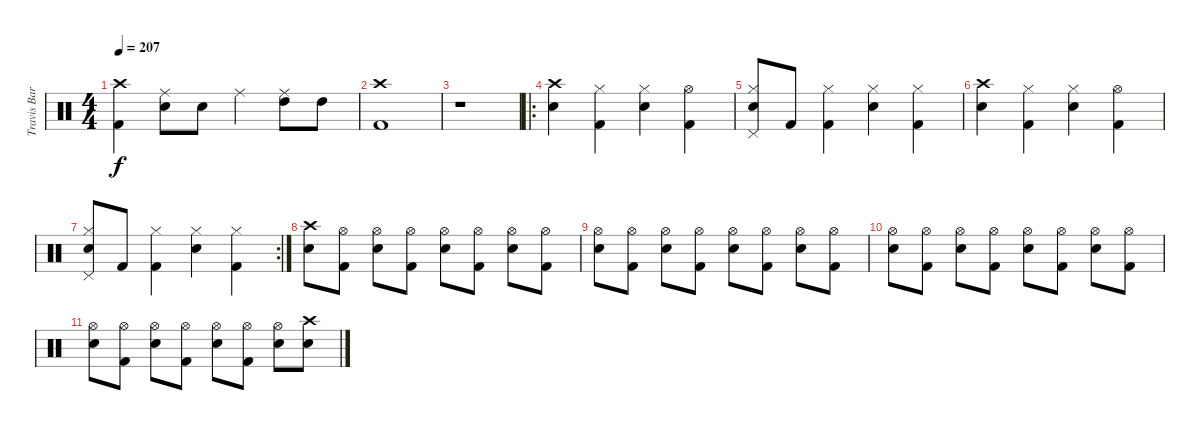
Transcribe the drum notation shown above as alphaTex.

\track ("Travis Barker" "Travis Bar") {instrument percussion}
\staff {score}
\articulation defaults
\ts (4 4)
\tempo 207
\clef neutral
\ks c
("Crash high (hit)" "Kick (hit) 2").4{dy f} ("Ride (middle)" "Electric Snare (hit)").8 "Electric Snare (hit)".8 "Ride (middle)".4 ("Ride (middle)" "High Tom (hit)").8 "High Tom (hit)".8 |
("Crash high (hit)" "Kick (hit) 2").1 |
r.1 |
\ro
("Crash high (hit)" "Electric Snare (hit)").4 ("Hi-Hat (closed)" "Kick (hit) 2").4 ("Hi-Hat (closed)" "Electric Snare (hit)").4 ("Hi-Hat (open)" "Kick (hit) 2").4 |
("Hi-Hat (closed)" "Electric Snare (hit)" "Pedal Hi-Hat (hit)").8 "Kick (hit) 2".8 ("Hi-Hat (closed)" "Kick (hit) 2").4 ("Hi-Hat (closed)" "Electric Snare (hit)").4 ("Hi-Hat (closed)" "Kick (hit) 2").4 |
("Crash high (hit)" "Electric Snare (hit)").4 ("Hi-Hat (closed)" "Kick (hit) 2").4 ("Hi-Hat (closed)" "Electric Snare (hit)").4 ("Hi-Hat (open)" "Kick (hit) 2").4 |
\rc 2
("Hi-Hat (closed)" "Electric Snare (hit)" "Pedal Hi-Hat (hit)").8 "Kick (hit) 2".8 ("Hi-Hat (closed)" "Kick (hit) 2").4 ("Hi-Hat (closed)" "Electric Snare (hit)").4 ("Hi-Hat (closed)" "Kick (hit) 2").4 |
("Crash high (hit)" "Electric Snare (hit)").8 ("Hi-Hat (open)" "Kick (hit) 2").8 ("Hi-Hat (open)" "Electric Snare (hit)").8 ("Hi-Hat (open)" "Kick (hit) 2").8 ("Hi-Hat (open)" "Electric Snare (hit)").8 ("Hi-Hat (open)" "Kick (hit) 2").8 ("Hi-Hat (open)" "Electric Snare (hit)").8 ("Hi-Hat (open)" "Kick (hit) 2").8 |
("Hi-Hat (open)" "Electric Snare (hit)").8 ("Hi-Hat (open)" "Kick (hit) 2").8 ("Hi-Hat (open)" "Electric Snare (hit)").8 ("Hi-Hat (open)" "Kick (hit) 2").8 ("Hi-Hat (open)" "Electric Snare (hit)").8 ("Hi-Hat (open)" "Kick (hit) 2").8 ("Hi-Hat (open)" "Electric Snare (hit)").8 ("Hi-Hat (open)" "Kick (hit) 2").8 |
("Hi-Hat (open)" "Electric Snare (hit)").8 ("Hi-Hat (open)" "Kick (hit) 2").8 ("Hi-Hat (open)" "Electric Snare (hit)").8 ("Hi-Hat (open)" "Kick (hit) 2").8 ("Hi-Hat (open)" "Electric Snare (hit)").8 ("Hi-Hat (open)" "Kick (hit) 2").8 ("Hi-Hat (open)" "Electric Snare (hit)").8 ("Hi-Hat (open)" "Kick (hit) 2").8 |
("Hi-Hat (open)" "Electric Snare (hit)").8 ("Hi-Hat (open)" "Kick (hit) 2").8 ("Hi-Hat (open)" "Electric Snare (hit)").8 ("Hi-Hat (open)" "Kick (hit) 2").8 ("Hi-Hat (open)" "Electric Snare (hit)").8 ("Hi-Hat (open)" "Kick (hit) 2").8 ("Hi-Hat (open)" "Electric Snare (hit)").8 ("Crash high (hit)" "Electric Snare (hit)").8
